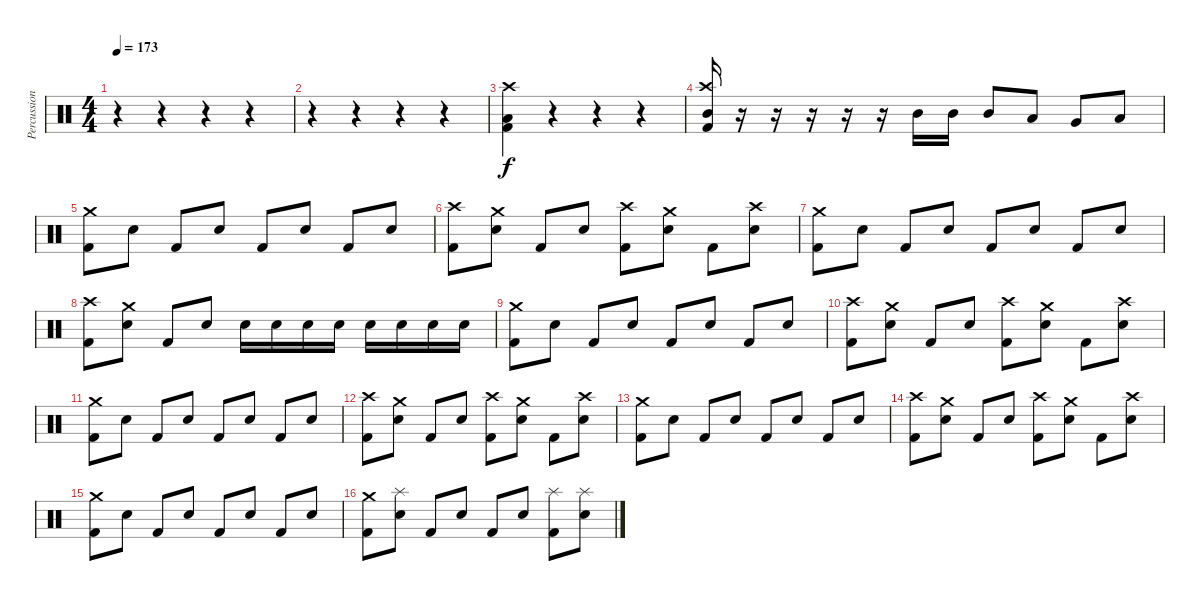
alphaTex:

\track ("Percussions" "Percussion") {instrument percussion}
\staff {score}
\articulation defaults
\ts (4 4)
\tempo 173
\clef neutral
\ks c
r.4{dy f} r.4 r.4 r.4 |
r.4 r.4 r.4 r.4 |
("Kick (hit) 2" "Low Floor Tom (hit)" "Crash high (hit)").4 r.4 r.4 r.4 |
("Mid Tom (hit)" "Kick (hit) 2" "Crash high (hit)").16 r.16 r.16 r.16 r.16 r.16 "Mid Tom (hit)".16 "Mid Tom (hit)".16 "Mid Tom (hit)".8 "Low Tom (hit)".8 "Very Low Tom (hit)".8 "Low Floor Tom (hit)".8 |
("Kick (hit) 2" "Crash medium (hit)").8 "Electric Snare (hit)".8 "Kick (hit) 2".8 "Electric Snare (hit)".8 "Kick (hit) 2".8 "Electric Snare (hit)".8 "Kick (hit) 2".8 "Electric Snare (hit)".8 |
("Kick (hit) 2" "Crash high (hit)").8 ("Electric Snare (hit)" "Crash medium (hit)").8 "Kick (hit) 2".8 "Electric Snare (hit)".8 ("Kick (hit) 2" "Crash high (hit)").8 ("Electric Snare (hit)" "Crash medium (hit)").8 "Kick (hit) 2".8 ("Electric Snare (hit)" "Crash high (hit)").8 |
("Kick (hit) 2" "Crash medium (hit)").8 "Electric Snare (hit)".8 "Kick (hit) 2".8 "Electric Snare (hit)".8 "Kick (hit) 2".8 "Electric Snare (hit)".8 "Kick (hit) 2".8 "Electric Snare (hit)".8 |
("Kick (hit) 2" "Crash high (hit)").8 ("Electric Snare (hit)" "Crash medium (hit)").8 "Kick (hit) 2".8 "Electric Snare (hit)".8 "Electric Snare (hit)".16 "Electric Snare (hit)".16 "Electric Snare (hit)".16 "Electric Snare (hit)".16 "Electric Snare (hit)".16 "Electric Snare (hit)".16 "Electric Snare (hit)".16 "Electric Snare (hit)".16 |
("Kick (hit) 2" "Crash medium (hit)").8 "Electric Snare (hit)".8 "Kick (hit) 2".8 "Electric Snare (hit)".8 "Kick (hit) 2".8 "Electric Snare (hit)".8 "Kick (hit) 2".8 "Electric Snare (hit)".8 |
("Kick (hit) 2" "Crash high (hit)").8 ("Electric Snare (hit)" "Crash medium (hit)").8 "Kick (hit) 2".8 "Electric Snare (hit)".8 ("Kick (hit) 2" "Crash high (hit)").8 ("Electric Snare (hit)" "Crash medium (hit)").8 "Kick (hit) 2".8 ("Electric Snare (hit)" "Crash high (hit)").8 |
("Kick (hit) 2" "Crash medium (hit)").8 "Electric Snare (hit)".8 "Kick (hit) 2".8 "Electric Snare (hit)".8 "Kick (hit) 2".8 "Electric Snare (hit)".8 "Kick (hit) 2".8 "Electric Snare (hit)".8 |
("Kick (hit) 2" "Crash high (hit)").8 ("Electric Snare (hit)" "Crash medium (hit)").8 "Kick (hit) 2".8 "Electric Snare (hit)".8 ("Kick (hit) 2" "Crash high (hit)").8 ("Electric Snare (hit)" "Crash medium (hit)").8 "Kick (hit) 2".8 ("Electric Snare (hit)" "Crash high (hit)").8 |
("Kick (hit) 2" "Crash medium (hit)").8 "Electric Snare (hit)".8 "Kick (hit) 2".8 "Electric Snare (hit)".8 "Kick (hit) 2".8 "Electric Snare (hit)".8 "Kick (hit) 2".8 "Electric Snare (hit)".8 |
("Kick (hit) 2" "Crash high (hit)").8 ("Electric Snare (hit)" "Crash medium (hit)").8 "Kick (hit) 2".8 "Electric Snare (hit)".8 ("Kick (hit) 2" "Crash high (hit)").8 ("Electric Snare (hit)" "Crash medium (hit)").8 "Kick (hit) 2".8 ("Electric Snare (hit)" "Crash high (hit)").8 |
("Kick (hit) 2" "Crash medium (hit)").8 "Electric Snare (hit)".8 "Kick (hit) 2".8 "Electric Snare (hit)".8 "Kick (hit) 2".8 "Electric Snare (hit)".8 "Kick (hit) 2".8 "Electric Snare (hit)".8 |
("Kick (hit) 2" "Crash medium (hit)").8 ("Electric Snare (hit)" "Splash (hit)").8 "Kick (hit) 2".8 "Electric Snare (hit)".8 "Kick (hit) 2".8 "Electric Snare (hit)".8 ("Kick (hit) 2" "Splash (hit)").8 ("Electric Snare (hit)" "Splash (hit)").8
